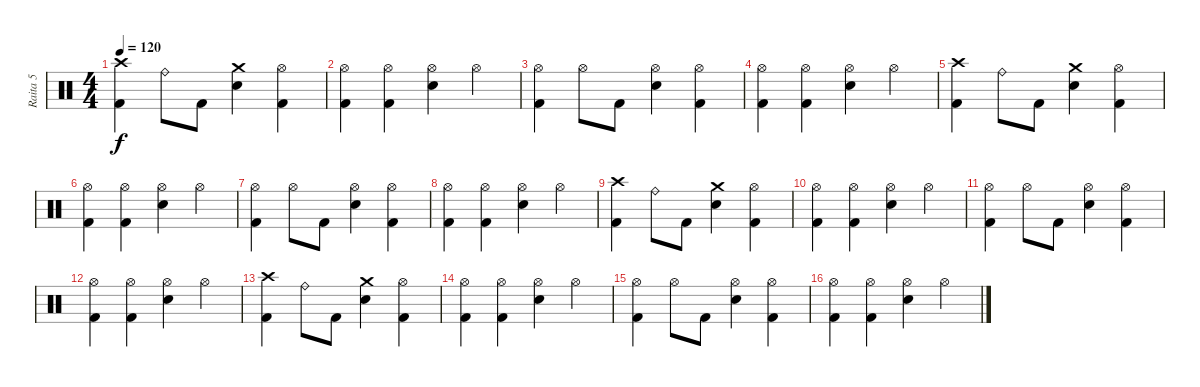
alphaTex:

\track ("Raita 5" "Raita 5") {instrument percussion}
\staff {score}
\articulation defaults
\ts (4 4)
\tempo 120
\clef neutral
\ks c
("Crash high (hit)" "Kick (hit) 2").4{dy f} "Ride (bell)".8 "Kick (hit) 2".8 ("Crash medium (hit)" "Snare (hit) 2").4 ("Hi-Hat (open)" "Kick (hit) 2").4 |
("Hi-Hat (open)" "Kick (hit) 2").4 ("Hi-Hat (open)" "Kick (hit) 2").4 ("Hi-Hat (open)" "Snare (hit) 2").4 "Hi-Hat (open)".4 |
("Hi-Hat (open)" "Kick (hit) 2").4 "Hi-Hat (open)".8 "Kick (hit) 2".8 ("Hi-Hat (open)" "Snare (hit) 2").4 ("Hi-Hat (open)" "Kick (hit) 2").4 |
("Hi-Hat (open)" "Kick (hit) 2").4 ("Hi-Hat (open)" "Kick (hit) 2").4 ("Hi-Hat (open)" "Snare (hit) 2").4 "Hi-Hat (open)".4 |
("Crash high (hit)" "Kick (hit) 2").4 "Ride (bell)".8 "Kick (hit) 2".8 ("Crash medium (hit)" "Snare (hit) 2").4 ("Hi-Hat (open)" "Kick (hit) 2").4 |
("Hi-Hat (open)" "Kick (hit) 2").4 ("Hi-Hat (open)" "Kick (hit) 2").4 ("Hi-Hat (open)" "Snare (hit) 2").4 "Hi-Hat (open)".4 |
("Hi-Hat (open)" "Kick (hit) 2").4 "Hi-Hat (open)".8 "Kick (hit) 2".8 ("Hi-Hat (open)" "Snare (hit) 2").4 ("Hi-Hat (open)" "Kick (hit) 2").4 |
("Hi-Hat (open)" "Kick (hit) 2").4 ("Hi-Hat (open)" "Kick (hit) 2").4 ("Hi-Hat (open)" "Snare (hit) 2").4 "Hi-Hat (open)".4 |
("Crash high (hit)" "Kick (hit) 2").4 "Ride (bell)".8 "Kick (hit) 2".8 ("Crash medium (hit)" "Snare (hit) 2").4 ("Hi-Hat (open)" "Kick (hit) 2").4 |
("Hi-Hat (open)" "Kick (hit) 2").4 ("Hi-Hat (open)" "Kick (hit) 2").4 ("Hi-Hat (open)" "Snare (hit) 2").4 "Hi-Hat (open)".4 |
("Hi-Hat (open)" "Kick (hit) 2").4 "Hi-Hat (open)".8 "Kick (hit) 2".8 ("Hi-Hat (open)" "Snare (hit) 2").4 ("Hi-Hat (open)" "Kick (hit) 2").4 |
("Hi-Hat (open)" "Kick (hit) 2").4 ("Hi-Hat (open)" "Kick (hit) 2").4 ("Hi-Hat (open)" "Snare (hit) 2").4 "Hi-Hat (open)".4 |
("Crash high (hit)" "Kick (hit) 2").4 "Ride (bell)".8 "Kick (hit) 2".8 ("Crash medium (hit)" "Snare (hit) 2").4 ("Hi-Hat (open)" "Kick (hit) 2").4 |
("Hi-Hat (open)" "Kick (hit) 2").4 ("Hi-Hat (open)" "Kick (hit) 2").4 ("Hi-Hat (open)" "Snare (hit) 2").4 "Hi-Hat (open)".4 |
("Hi-Hat (open)" "Kick (hit) 2").4 "Hi-Hat (open)".8 "Kick (hit) 2".8 ("Hi-Hat (open)" "Snare (hit) 2").4 ("Hi-Hat (open)" "Kick (hit) 2").4 |
("Hi-Hat (open)" "Kick (hit) 2").4 ("Hi-Hat (open)" "Kick (hit) 2").4 ("Hi-Hat (open)" "Snare (hit) 2").4 "Hi-Hat (open)".4
